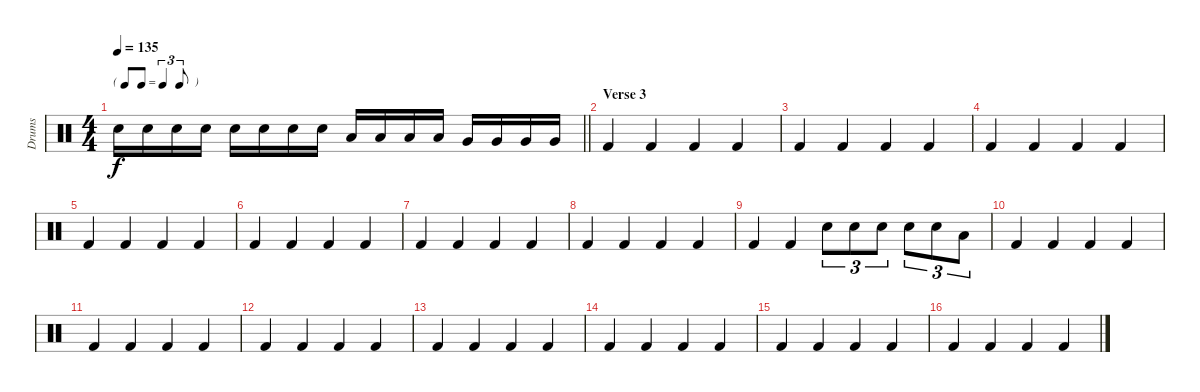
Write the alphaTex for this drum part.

\track ("Drums" "Drums") {instrument percussion}
\staff {score}
\articulation defaults
\ts (4 4)
\tf triplet8th
\tempo 135
\clef neutral
\barLineRight lightlight
\ks c "Snare (hit) 2".16{dy f} "Snare (hit) 2".16 "Snare (hit) 2".16 "Snare (hit) 2".16 "Snare (hit) 2".16 "Snare (hit) 2".16 "Snare (hit) 2".16 "Snare (hit) 2".16 "Low Tom (hit)".16 "Low Tom (hit)".16 "Low Tom (hit)".16 "Low Tom (hit)".16 "Very Low Tom (hit)".16 "Very Low Tom (hit)".16 "Very Low Tom (hit)".16 "Very Low Tom (hit)".16
|
\section ("" "Verse 3")
"Kick (hit) 2".4 "Kick (hit) 2".4 "Kick (hit) 2".4 "Kick (hit) 2".4 |
"Kick (hit) 2".4 "Kick (hit) 2".4 "Kick (hit) 2".4 "Kick (hit) 2".4 |
"Kick (hit) 2".4 "Kick (hit) 2".4 "Kick (hit) 2".4 "Kick (hit) 2".4 |
"Kick (hit) 2".4 "Kick (hit) 2".4 "Kick (hit) 2".4 "Kick (hit) 2".4 |
"Kick (hit) 2".4 "Kick (hit) 2".4 "Kick (hit) 2".4 "Kick (hit) 2".4 |
"Kick (hit) 2".4 "Kick (hit) 2".4 "Kick (hit) 2".4 "Kick (hit) 2".4 |
"Kick (hit) 2".4 "Kick (hit) 2".4 "Kick (hit) 2".4 "Kick (hit) 2".4 |
"Kick (hit) 2".4 "Kick (hit) 2".4 "Snare (hit) 2".8{tu (3 2)} "Snare (hit) 2".8{tu (3 2)} "Snare (hit) 2".8{tu (3 2)} "Snare (hit) 2".8{tu (3 2)} "Snare (hit) 2".8{tu (3 2)} "Low Tom (hit)".8{tu (3 2)} |
"Kick (hit) 2".4 "Kick (hit) 2".4 "Kick (hit) 2".4 "Kick (hit) 2".4 |
"Kick (hit) 2".4 "Kick (hit) 2".4 "Kick (hit) 2".4 "Kick (hit) 2".4 |
"Kick (hit) 2".4 "Kick (hit) 2".4 "Kick (hit) 2".4 "Kick (hit) 2".4 |
"Kick (hit) 2".4 "Kick (hit) 2".4 "Kick (hit) 2".4 "Kick (hit) 2".4 |
"Kick (hit) 2".4 "Kick (hit) 2".4 "Kick (hit) 2".4 "Kick (hit) 2".4 |
"Kick (hit) 2".4 "Kick (hit) 2".4 "Kick (hit) 2".4 "Kick (hit) 2".4 |
"Kick (hit) 2".4 "Kick (hit) 2".4 "Kick (hit) 2".4 "Kick (hit) 2".4
